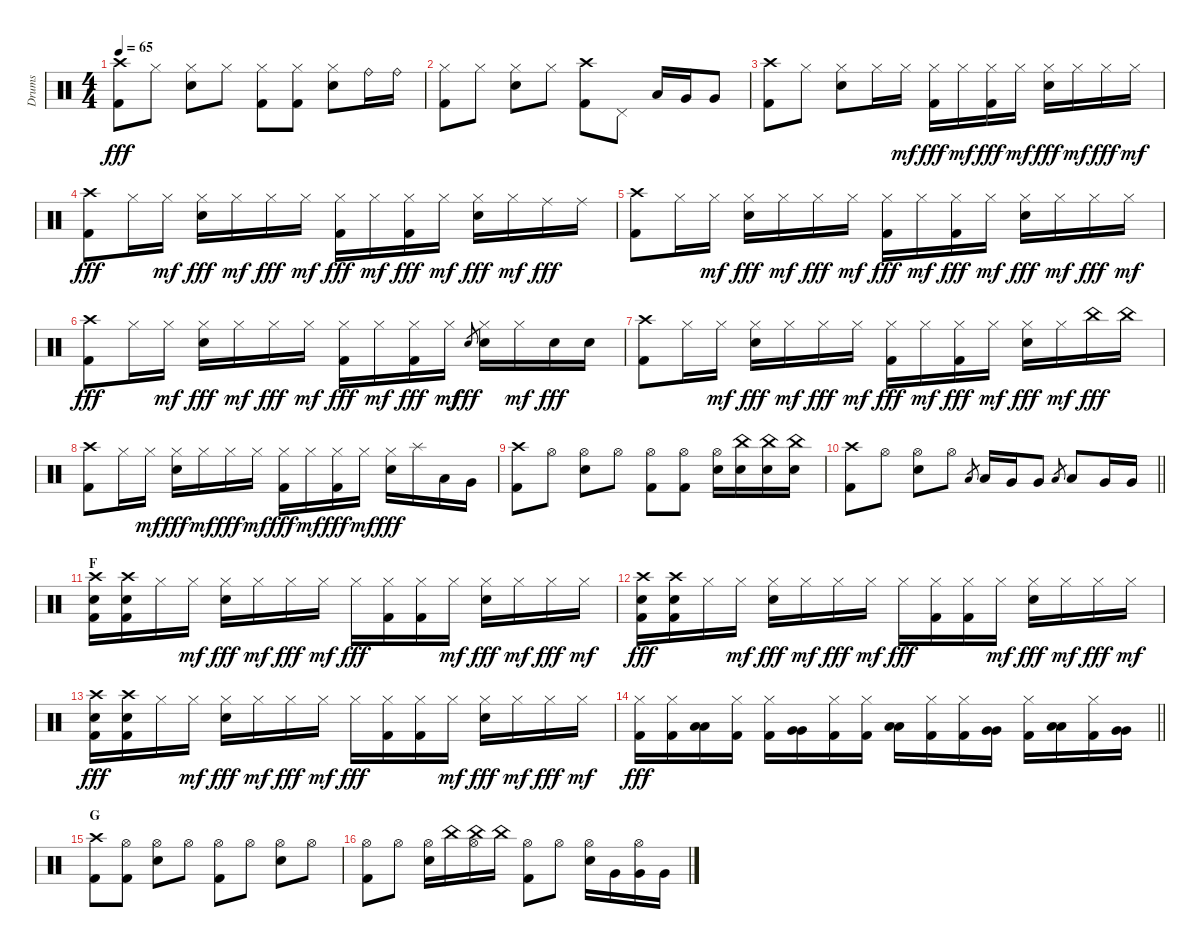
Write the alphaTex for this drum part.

\track ("Drums" "Drums") {instrument percussion}
\staff {score}
\articulation defaults
\ts (4 4)
\tempo 65
\clef neutral
\ks c
("Crash high (hit)" "Kick (hit) 2").8{dy fff} "Hi-Hat (closed)".8 ("Hi-Hat (closed)" "Snare (hit) 2").8 "Hi-Hat (closed)".8 ("Hi-Hat (closed)" "Kick (hit) 2").8 ("Hi-Hat (closed)" "Kick (hit) 2").8 ("Hi-Hat (closed)" "Snare (hit) 2").8 "Ride (bell)".16 "Ride (bell)".16 |
("Hi-Hat (closed)" "Kick (hit) 2").8 "Hi-Hat (closed)".8 ("Hi-Hat (closed)" "Snare (hit) 2").8 "Hi-Hat (closed)".8 ("Crash high (hit)" "Kick (hit) 2").8 "Pedal Hi-Hat (hit)".8 "Low Tom (hit)".16 "Very Low Tom (hit)".16 "Very Low Tom (hit)".8 |
("Crash high (hit)" "Kick (hit) 2").8 "Hi-Hat (closed)".8 ("Hi-Hat (closed)" "Snare (hit) 2").8 "Hi-Hat (closed)".16 "Hi-Hat (closed)".16{dy mf} ("Hi-Hat (closed)" "Kick (hit) 2").16{dy fff} "Hi-Hat (closed)".16{dy mf} ("Hi-Hat (closed)" "Kick (hit) 2").16{dy fff} "Hi-Hat (closed)".16{dy mf} ("Hi-Hat (closed)" "Snare (hit) 2").16{dy fff} "Hi-Hat (closed)".16{dy mf} "Hi-Hat (closed)".16{dy fff} "Hi-Hat (closed)".16{dy mf} |
("Crash high (hit)" "Kick (hit) 2").8{dy fff} "Hi-Hat (closed)".16 "Hi-Hat (closed)".16{dy mf} ("Hi-Hat (closed)" "Snare (hit) 2").16{dy fff} "Hi-Hat (closed)".16{dy mf} "Hi-Hat (closed)".16{dy fff} "Hi-Hat (closed)".16{dy mf} ("Hi-Hat (closed)" "Kick (hit) 2").16{dy fff} "Hi-Hat (closed)".16{dy mf} ("Hi-Hat (closed)" "Kick (hit) 2").16{dy fff} "Hi-Hat (closed)".16{dy mf} ("Hi-Hat (closed)" "Snare (hit) 2").16{dy fff} "Hi-Hat (closed)".16{dy mf} "Ride (middle)".16{dy fff} "Ride (middle)".16 |
("Crash high (hit)" "Kick (hit) 2").8 "Hi-Hat (closed)".16 "Hi-Hat (closed)".16{dy mf} ("Hi-Hat (closed)" "Snare (hit) 2").16{dy fff} "Hi-Hat (closed)".16{dy mf} "Hi-Hat (closed)".16{dy fff} "Hi-Hat (closed)".16{dy mf} ("Hi-Hat (closed)" "Kick (hit) 2").16{dy fff} "Hi-Hat (closed)".16{dy mf} ("Hi-Hat (closed)" "Kick (hit) 2").16{dy fff} "Hi-Hat (closed)".16{dy mf} ("Hi-Hat (closed)" "Snare (hit) 2").16{dy fff} "Hi-Hat (closed)".16{dy mf} "Hi-Hat (closed)".16{dy fff} "Hi-Hat (closed)".16{dy mf} |
("Crash high (hit)" "Kick (hit) 2").8{dy fff} "Hi-Hat (closed)".16 "Hi-Hat (closed)".16{dy mf} ("Hi-Hat (closed)" "Snare (hit) 2").16{dy fff} "Hi-Hat (closed)".16{dy mf} "Hi-Hat (closed)".16{dy fff} "Hi-Hat (closed)".16{dy mf} ("Hi-Hat (closed)" "Kick (hit) 2").16{dy fff} "Hi-Hat (closed)".16{dy mf} ("Hi-Hat (closed)" "Kick (hit) 2").16{dy fff} "Hi-Hat (closed)".16{dy mf} "Snare (hit) 2".8{gr dy fff} ("Hi-Hat (closed)" "Snare (hit) 2").16 "Hi-Hat (closed)".16{dy mf} "Snare (hit) 2".16{dy fff} "Snare (hit) 2".16 |
("Crash high (hit)" "Kick (hit) 2").8 "Hi-Hat (closed)".16 "Hi-Hat (closed)".16{dy mf} ("Hi-Hat (closed)" "Snare (hit) 2").16{dy fff} "Hi-Hat (closed)".16{dy mf} "Hi-Hat (closed)".16{dy fff} "Hi-Hat (closed)".16{dy mf} ("Hi-Hat (closed)" "Kick (hit) 2").16{dy fff} "Hi-Hat (closed)".16{dy mf} ("Hi-Hat (closed)" "Kick (hit) 2").16{dy fff} "Hi-Hat (closed)".16{dy mf} ("Hi-Hat (closed)" "Snare (hit) 2").16{dy fff} "Hi-Hat (closed)".16{dy mf} "China (hit)".16{dy fff} "China (hit)".16 |
("Crash high (hit)" "Kick (hit) 2").8 "Hi-Hat (closed)".16 "Hi-Hat (closed)".16{dy mf} ("Hi-Hat (closed)" "Snare (hit) 2").16{dy fff} "Hi-Hat (closed)".16{dy mf} "Hi-Hat (closed)".16{dy fff} "Hi-Hat (closed)".16{dy mf} ("Hi-Hat (closed)" "Kick (hit) 2").16{dy fff} "Hi-Hat (closed)".16{dy mf} ("Hi-Hat (closed)" "Kick (hit) 2").16{dy fff} "Hi-Hat (closed)".16{dy mf} ("Hi-Hat (closed)" "Snare (hit) 2").16{dy fff} "Splash (hit)".16 "Low Tom (hit)".16 "Very Low Tom (hit)".16 |
("Crash high (hit)" "Kick (hit) 2").8 "Hi-Hat (open)".8 ("Hi-Hat (open)" "Snare (hit) 2").8 "Hi-Hat (open)".8 ("Hi-Hat (open)" "Kick (hit) 2").8 ("Hi-Hat (open)" "Kick (hit) 2").8 ("Hi-Hat (open)" "Snare (hit) 2").16 ("China (hit)" "Snare (hit) 2").16 ("China (hit)" "Snare (hit) 2").16 ("China (hit)" "Snare (hit) 2").16 |
\barLineRight lightlight
("Crash high (hit)" "Kick (hit) 2").8 "Hi-Hat (open)".8 ("Hi-Hat (open)" "Snare (hit) 2").8 "Hi-Hat (open)".8 "Low Tom (hit)".8{gr} "Low Tom (hit)".16 "Very Low Tom (hit)".16 "Very Low Tom (hit)".8 "Low Tom (hit)".8{gr} "Low Tom (hit)".8 "Very Low Tom (hit)".16 "Very Low Tom (hit)".16 |
\section ("" "F")
("Crash high (hit)" "Snare (hit) 2" "Kick (hit) 2").16 ("Crash high (hit)" "Snare (hit) 2" "Kick (hit) 2").16 "Hi-Hat (closed)".16 "Hi-Hat (closed)".16{dy mf} ("Hi-Hat (closed)" "Snare (hit) 2").16{dy fff} "Hi-Hat (closed)".16{dy mf} "Hi-Hat (closed)".16{dy fff} "Hi-Hat (closed)".16{dy mf} "Hi-Hat (closed)".16{dy fff} ("Hi-Hat (closed)" "Kick (hit) 2").16 ("Hi-Hat (closed)" "Kick (hit) 2").16 "Hi-Hat (closed)".16{dy mf} ("Hi-Hat (closed)" "Snare (hit) 2").16{dy fff} "Hi-Hat (closed)".16{dy mf} "Hi-Hat (closed)".16{dy fff} "Hi-Hat (closed)".16{dy mf} |
("Crash high (hit)" "Snare (hit) 2" "Kick (hit) 2").16{dy fff} ("Crash high (hit)" "Snare (hit) 2" "Kick (hit) 2").16 "Hi-Hat (closed)".16 "Hi-Hat (closed)".16{dy mf} ("Hi-Hat (closed)" "Snare (hit) 2").16{dy fff} "Hi-Hat (closed)".16{dy mf} "Hi-Hat (closed)".16{dy fff} "Hi-Hat (closed)".16{dy mf} "Hi-Hat (closed)".16{dy fff} ("Hi-Hat (closed)" "Kick (hit) 2").16 ("Hi-Hat (closed)" "Kick (hit) 2").16 "Hi-Hat (closed)".16{dy mf} ("Hi-Hat (closed)" "Snare (hit) 2").16{dy fff} "Hi-Hat (closed)".16{dy mf} "Hi-Hat (closed)".16{dy fff} "Hi-Hat (closed)".16{dy mf} |
("Crash high (hit)" "Snare (hit) 2" "Kick (hit) 2").16{dy fff} ("Crash high (hit)" "Snare (hit) 2" "Kick (hit) 2").16 "Hi-Hat (closed)".16 "Hi-Hat (closed)".16{dy mf} ("Hi-Hat (closed)" "Snare (hit) 2").16{dy fff} "Hi-Hat (closed)".16{dy mf} "Hi-Hat (closed)".16{dy fff} "Hi-Hat (closed)".16{dy mf} "Hi-Hat (closed)".16{dy fff} ("Hi-Hat (closed)" "Kick (hit) 2").16 ("Hi-Hat (closed)" "Kick (hit) 2").16 "Hi-Hat (closed)".16{dy mf} ("Hi-Hat (closed)" "Snare (hit) 2").16{dy fff} "Hi-Hat (closed)".16{dy mf} "Hi-Hat (closed)".16{dy fff} "Hi-Hat (closed)".16{dy mf} |
\barLineRight lightlight
("Hi-Hat (closed)" "Kick (hit) 2").16{dy fff} ("Hi-Hat (closed)" "Kick (hit) 2").16 ("Low Tom (hit)" "Low Tom (hit)").16 ("Hi-Hat (closed)" "Kick (hit) 2").16 ("Hi-Hat (closed)" "Kick (hit) 2").16 ("Very Low Tom (hit)" "Very Low Tom (hit)").16 ("Hi-Hat (closed)" "Kick (hit) 2").16 ("Hi-Hat (closed)" "Kick (hit) 2").16 ("Low Tom (hit)" "Low Tom (hit)").16 ("Hi-Hat (closed)" "Kick (hit) 2").16 ("Hi-Hat (closed)" "Kick (hit) 2").16 ("Very Low Tom (hit)" "Very Low Tom (hit)").16 ("Hi-Hat (closed)" "Kick (hit) 2").16 ("Low Tom (hit)" "Low Tom (hit)").16 ("Hi-Hat (closed)" "Kick (hit) 2").16 ("Very Low Tom (hit)" "Very Low Tom (hit)").16 |
\section ("" "G")
("Crash high (hit)" "Kick (hit) 2").8 ("Hi-Hat (open)" "Kick (hit) 2").8 ("Hi-Hat (open)" "Snare (hit) 2").8 "Hi-Hat (open)".8 ("Hi-Hat (open)" "Kick (hit) 2").8 "Hi-Hat (open)".8 ("Hi-Hat (open)" "Snare (hit) 2").8 "Hi-Hat (open)".8 |
("Hi-Hat (open)" "Kick (hit) 2").8 "Hi-Hat (open)".8 ("Hi-Hat (open)" "Snare (hit) 2").16 "China (hit)".16 ("Hi-Hat (open)" "China (hit)").16 "China (hit)".16 ("Hi-Hat (open)" "Kick (hit) 2").8 "Hi-Hat (open)".8 ("Hi-Hat (open)" "Snare (hit) 2").16 "Very Low Tom (hit)".16 ("Hi-Hat (open)" "Very Low Tom (hit)").16 "Very Low Tom (hit)".16
